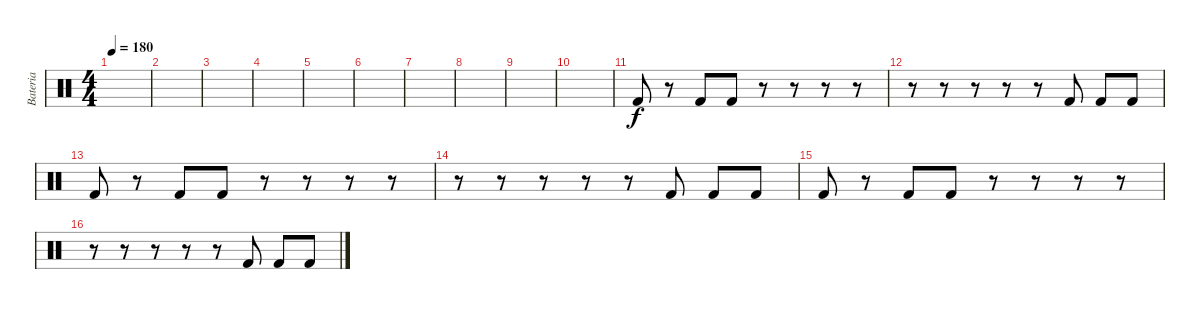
\track ("Bateria" "Bateria") {instrument percussion}
\staff {score}
\articulation defaults
\ts (4 4)
\tempo 180
\clef neutral
\ks c
|
|
|
|
|
|
|
|
|
|
"Kick (hit) 2".8 r.8 "Kick (hit) 2".8 "Kick (hit) 2".8 r.8 r.8 r.8 r.8 |
r.8 r.8 r.8 r.8 r.8 "Kick (hit) 2".8 "Kick (hit) 2".8 "Kick (hit) 2".8 |
"Kick (hit) 2".8 r.8 "Kick (hit) 2".8 "Kick (hit) 2".8 r.8 r.8 r.8 r.8 |
r.8 r.8 r.8 r.8 r.8 "Kick (hit) 2".8 "Kick (hit) 2".8 "Kick (hit) 2".8 |
"Kick (hit) 2".8 r.8 "Kick (hit) 2".8 "Kick (hit) 2".8 r.8 r.8 r.8 r.8 |
r.8 r.8 r.8 r.8 r.8 "Kick (hit) 2".8 "Kick (hit) 2".8 "Kick (hit) 2".8
